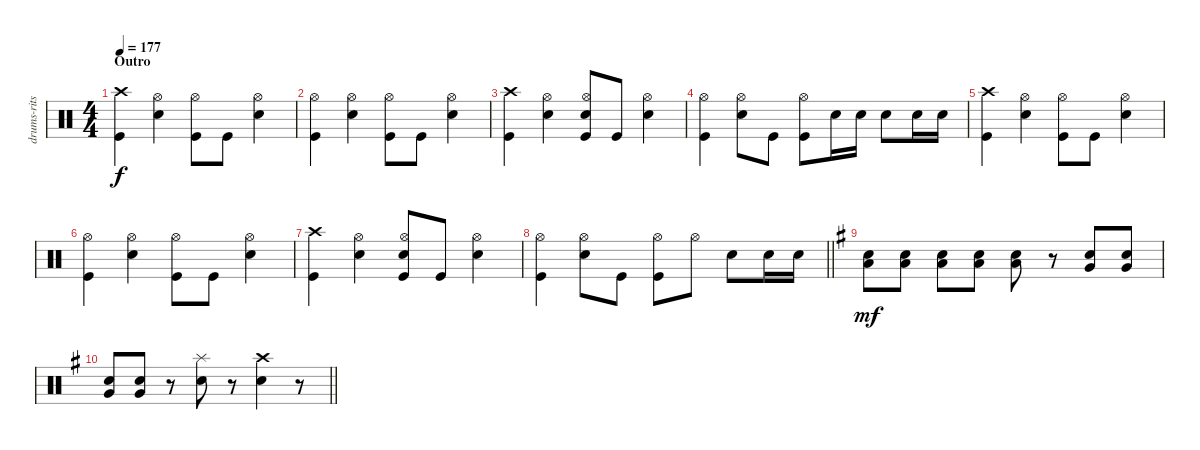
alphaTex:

\track ("drums-ritsu takana" "drums-rits") {instrument percussion}
\staff {score}
\articulation defaults
\ts (4 4)
\section ("" "Outro")
\tempo 177
\clef neutral
\ks c
("Crash high (hit)" "Kick (hit)").4{dy f} ("Hi-Hat (open)" "Snare (hit) 2").4 ("Hi-Hat (open)" "Kick (hit)").8 "Kick (hit)".8 ("Hi-Hat (open)" "Snare (hit) 2").4 |
("Hi-Hat (open)" "Kick (hit)").4 ("Hi-Hat (open)" "Snare (hit) 2").4 ("Hi-Hat (open)" "Kick (hit)").8 "Kick (hit)".8 ("Hi-Hat (open)" "Snare (hit) 2").4 |
("Crash high (hit)" "Kick (hit)").4 ("Hi-Hat (open)" "Snare (hit) 2").4 ("Hi-Hat (open)" "Snare (hit) 2" "Kick (hit)").8 "Kick (hit)".8 ("Hi-Hat (open)" "Snare (hit) 2").4 |
("Hi-Hat (open)" "Kick (hit)").4 ("Hi-Hat (open)" "Snare (hit) 2").8 "Kick (hit)".8 ("Hi-Hat (open)" "Kick (hit)").8 "Snare (hit) 2".16 "Snare (hit) 2".16 "Snare (hit) 2".8 "Snare (hit) 2".16 "Snare (hit) 2".16 |
("Crash high (hit)" "Kick (hit)").4 ("Hi-Hat (open)" "Snare (hit) 2").4 ("Hi-Hat (open)" "Kick (hit)").8 "Kick (hit)".8 ("Hi-Hat (open)" "Snare (hit) 2").4 |
("Hi-Hat (open)" "Kick (hit)").4 ("Hi-Hat (open)" "Snare (hit) 2").4 ("Hi-Hat (open)" "Kick (hit)").8 "Kick (hit)".8 ("Hi-Hat (open)" "Snare (hit) 2").4 |
("Crash high (hit)" "Kick (hit)").4 ("Hi-Hat (open)" "Snare (hit) 2").4 ("Hi-Hat (open)" "Snare (hit) 2" "Kick (hit)").8 "Kick (hit)".8 ("Hi-Hat (open)" "Snare (hit) 2").4 |
\barLineRight lightlight
("Hi-Hat (open)" "Kick (hit)").4 ("Hi-Hat (open)" "Snare (hit) 2").8 "Kick (hit)".8 ("Hi-Hat (open)" "Kick (hit)").8 "Hi-Hat (open)".8 "Snare (hit) 2".8 "Snare (hit) 2".16 "Snare (hit) 2".16 |
\ks eminor
("Snare (hit) 2" "Low Floor Tom (hit)").8{dy mf} ("Snare (hit) 2" "Low Floor Tom (hit)").8 ("Snare (hit) 2" "Low Floor Tom (hit)").8 ("Snare (hit) 2" "Low Floor Tom (hit)").8 ("Snare (hit) 2" "Low Floor Tom (hit)").8 r.8 ("Snare (hit) 2" "Very Low Tom (hit)").8 ("Snare (hit) 2" "Very Low Tom (hit)").8 |
\barLineRight lightlight
("Snare (hit) 2" "Very Low Tom (hit)").8 ("Snare (hit) 2" "Very Low Tom (hit)").8 r.8 ("Snare (hit) 2" "Splash (hit)").8 r.8 ("Snare (hit) 2" "Crash high (hit)").4 r.8
